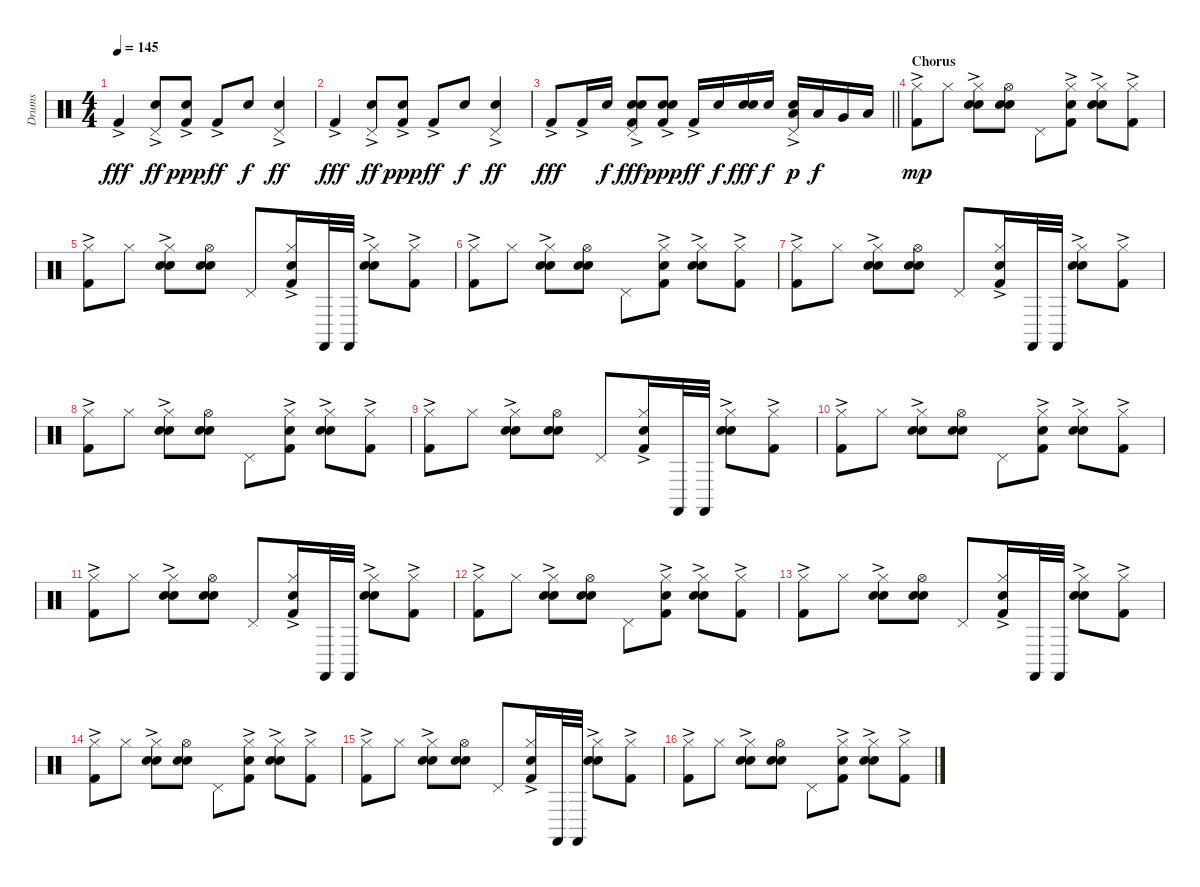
\track ("Drums" "Drums") {instrument percussion}
\staff {score}
\articulation defaults
\ts (4 4)
\tempo 145
\clef neutral
\ks c "Kick (hit) 2"{ac}.4{dy fff}
("Pedal Hi-Hat (hit)" "Hand Clap (hit)"{ac}).8{dy ff} ("Kick (hit) 2"{ac} "Hand Clap (hit)").8{dy ppp} "Kick (hit) 2"{ac}.8{dy ff} "Hand Clap (hit)".8{dy f} ("Pedal Hi-Hat (hit)" "Hand Clap (hit)"{ac}).4{dy ff} |
"Kick (hit) 2"{ac}.4{dy fff} ("Pedal Hi-Hat (hit)" "Hand Clap (hit)"{ac}).8{dy ff} ("Kick (hit) 2"{ac} "Hand Clap (hit)").8{dy ppp} "Kick (hit) 2"{ac}.8{dy ff} "Hand Clap (hit)".8{dy f} ("Pedal Hi-Hat (hit)" "Hand Clap (hit)"{ac}).4{dy ff} |
\barLineRight lightlight "Kick (hit) 2"{ac}.8{dy fff} "Kick (hit) 2"{ac}.16 "Electric Snare (hit)".16{dy f}
("Kick (hit) 2"{ac} "Pedal Hi-Hat (hit)" "Hand Clap (hit)"{ac} "Electric Snare (hit)").8{dy fff} ("Kick (hit) 2"{ac} "Hand Clap (hit)" "Electric Snare (hit)").8{dy ppp} "Kick (hit) 2"{ac}.16{dy ff} "Electric Snare (hit)".16{dy f} ("Hand Clap (hit)" "Electric Snare (hit)").16{dy fff} "Electric Snare (hit)".16{dy f} ("Pedal Hi-Hat (hit)" "Hand Clap (hit)"{ac} "Low Tom (hit)").16{dy p} "Low Tom (hit)".16{dy f} "Very Low Tom (hit)".16 "Low Floor Tom (hit)".16 |
\section ("" "Chorus")
("Kick (hit) 2"{ac} "Hi-Hat (closed)").8{dy mp} "Hi-Hat (closed)".8 ("Hand Clap (hit)" "Electric Snare (hit)"{ac} "Hi-Hat (closed)").8 ("Hand Clap (hit)" "Electric Snare (hit)" "Hi-Hat (open)").8 "Pedal Hi-Hat (hit)".8 ("Kick (hit) 2"{ac} "Hand Clap (hit)" "Hi-Hat (closed)").8 ("Hand Clap (hit)" "Electric Snare (hit)"{ac} "Hi-Hat (closed)").8 ("Kick (hit) 2"{ac} "Hi-Hat (closed)").8 |
("Kick (hit) 2"{ac} "Hi-Hat (closed)").8 "Hi-Hat (closed)".8 ("Hand Clap (hit)" "Electric Snare (hit)"{ac} "Hi-Hat (closed)").8 ("Hand Clap (hit)" "Electric Snare (hit)" "Hi-Hat (open)").8 "Pedal Hi-Hat (hit)".8 ("Kick (hit) 2"{ac} "Hand Clap (hit)" "Hi-Hat (closed)").16 "Castanets (hit)".32 "Castanets (hit)".32 ("Hand Clap (hit)" "Electric Snare (hit)"{ac} "Hi-Hat (closed)").8 ("Kick (hit) 2"{ac} "Hi-Hat (closed)").8 |
("Kick (hit) 2"{ac} "Hi-Hat (closed)").8 "Hi-Hat (closed)".8 ("Hand Clap (hit)" "Electric Snare (hit)"{ac} "Hi-Hat (closed)").8 ("Hand Clap (hit)" "Electric Snare (hit)" "Hi-Hat (open)").8 "Pedal Hi-Hat (hit)".8 ("Kick (hit) 2"{ac} "Hand Clap (hit)" "Hi-Hat (closed)").8 ("Hand Clap (hit)" "Electric Snare (hit)"{ac} "Hi-Hat (closed)").8 ("Kick (hit) 2"{ac} "Hi-Hat (closed)").8 |
("Kick (hit) 2"{ac} "Hi-Hat (closed)").8 "Hi-Hat (closed)".8 ("Hand Clap (hit)" "Electric Snare (hit)"{ac} "Hi-Hat (closed)").8 ("Hand Clap (hit)" "Electric Snare (hit)" "Hi-Hat (open)").8 "Pedal Hi-Hat (hit)".8 ("Kick (hit) 2"{ac} "Hand Clap (hit)" "Hi-Hat (closed)").16 "Castanets (hit)".32 "Castanets (hit)".32 ("Hand Clap (hit)" "Electric Snare (hit)"{ac} "Hi-Hat (closed)").8 ("Kick (hit) 2"{ac} "Hi-Hat (closed)").8 |
("Kick (hit) 2"{ac} "Hi-Hat (closed)").8 "Hi-Hat (closed)".8 ("Hand Clap (hit)" "Electric Snare (hit)"{ac} "Hi-Hat (closed)").8 ("Hand Clap (hit)" "Electric Snare (hit)" "Hi-Hat (open)").8 "Pedal Hi-Hat (hit)".8 ("Kick (hit) 2"{ac} "Hand Clap (hit)" "Hi-Hat (closed)").8 ("Hand Clap (hit)" "Electric Snare (hit)"{ac} "Hi-Hat (closed)").8 ("Kick (hit) 2"{ac} "Hi-Hat (closed)").8 |
("Kick (hit) 2"{ac} "Hi-Hat (closed)").8 "Hi-Hat (closed)".8 ("Hand Clap (hit)" "Electric Snare (hit)"{ac} "Hi-Hat (closed)").8 ("Hand Clap (hit)" "Electric Snare (hit)" "Hi-Hat (open)").8 "Pedal Hi-Hat (hit)".8 ("Kick (hit) 2"{ac} "Hand Clap (hit)" "Hi-Hat (closed)").16 "Castanets (hit)".32 "Castanets (hit)".32 ("Hand Clap (hit)" "Electric Snare (hit)"{ac} "Hi-Hat (closed)").8 ("Kick (hit) 2"{ac} "Hi-Hat (closed)").8 |
("Kick (hit) 2"{ac} "Hi-Hat (closed)").8 "Hi-Hat (closed)".8 ("Hand Clap (hit)" "Electric Snare (hit)"{ac} "Hi-Hat (closed)").8 ("Hand Clap (hit)" "Electric Snare (hit)" "Hi-Hat (open)").8 "Pedal Hi-Hat (hit)".8 ("Kick (hit) 2"{ac} "Hand Clap (hit)" "Hi-Hat (closed)").8 ("Hand Clap (hit)" "Electric Snare (hit)"{ac} "Hi-Hat (closed)").8 ("Kick (hit) 2"{ac} "Hi-Hat (closed)").8 |
("Kick (hit) 2"{ac} "Hi-Hat (closed)").8 "Hi-Hat (closed)".8 ("Hand Clap (hit)" "Electric Snare (hit)"{ac} "Hi-Hat (closed)").8 ("Hand Clap (hit)" "Electric Snare (hit)" "Hi-Hat (open)").8 "Pedal Hi-Hat (hit)".8 ("Kick (hit) 2"{ac} "Hand Clap (hit)" "Hi-Hat (closed)").16 "Castanets (hit)".32 "Castanets (hit)".32 ("Hand Clap (hit)" "Electric Snare (hit)"{ac} "Hi-Hat (closed)").8 ("Kick (hit) 2"{ac} "Hi-Hat (closed)").8 |
("Kick (hit) 2"{ac} "Hi-Hat (closed)").8 "Hi-Hat (closed)".8 ("Hand Clap (hit)" "Electric Snare (hit)"{ac} "Hi-Hat (closed)").8 ("Hand Clap (hit)" "Electric Snare (hit)" "Hi-Hat (open)").8 "Pedal Hi-Hat (hit)".8 ("Kick (hit) 2"{ac} "Hand Clap (hit)" "Hi-Hat (closed)").8 ("Hand Clap (hit)" "Electric Snare (hit)"{ac} "Hi-Hat (closed)").8 ("Kick (hit) 2"{ac} "Hi-Hat (closed)").8 |
("Kick (hit) 2"{ac} "Hi-Hat (closed)").8 "Hi-Hat (closed)".8 ("Hand Clap (hit)" "Electric Snare (hit)"{ac} "Hi-Hat (closed)").8 ("Hand Clap (hit)" "Electric Snare (hit)" "Hi-Hat (open)").8 "Pedal Hi-Hat (hit)".8 ("Kick (hit) 2"{ac} "Hand Clap (hit)" "Hi-Hat (closed)").16 "Castanets (hit)".32 "Castanets (hit)".32 ("Hand Clap (hit)" "Electric Snare (hit)"{ac} "Hi-Hat (closed)").8 ("Kick (hit) 2"{ac} "Hi-Hat (closed)").8 |
("Kick (hit) 2"{ac} "Hi-Hat (closed)").8 "Hi-Hat (closed)".8 ("Hand Clap (hit)" "Electric Snare (hit)"{ac} "Hi-Hat (closed)").8 ("Hand Clap (hit)" "Electric Snare (hit)" "Hi-Hat (open)").8 "Pedal Hi-Hat (hit)".8 ("Kick (hit) 2"{ac} "Hand Clap (hit)" "Hi-Hat (closed)").8 ("Hand Clap (hit)" "Electric Snare (hit)"{ac} "Hi-Hat (closed)").8 ("Kick (hit) 2"{ac} "Hi-Hat (closed)").8 |
("Kick (hit) 2"{ac} "Hi-Hat (closed)").8 "Hi-Hat (closed)".8 ("Hand Clap (hit)" "Electric Snare (hit)"{ac} "Hi-Hat (closed)").8 ("Hand Clap (hit)" "Electric Snare (hit)" "Hi-Hat (open)").8 "Pedal Hi-Hat (hit)".8 ("Kick (hit) 2"{ac} "Hand Clap (hit)" "Hi-Hat (closed)").16 "Castanets (hit)".32 "Castanets (hit)".32 ("Hand Clap (hit)" "Electric Snare (hit)"{ac} "Hi-Hat (closed)").8 ("Kick (hit) 2"{ac} "Hi-Hat (closed)").8 |
("Kick (hit) 2"{ac} "Hi-Hat (closed)").8 "Hi-Hat (closed)".8 ("Hand Clap (hit)" "Electric Snare (hit)"{ac} "Hi-Hat (closed)").8 ("Hand Clap (hit)" "Electric Snare (hit)" "Hi-Hat (open)").8 "Pedal Hi-Hat (hit)".8 ("Kick (hit) 2"{ac} "Hand Clap (hit)" "Hi-Hat (closed)").8 ("Hand Clap (hit)" "Electric Snare (hit)"{ac} "Hi-Hat (closed)").8 ("Kick (hit) 2"{ac} "Hi-Hat (closed)").8
